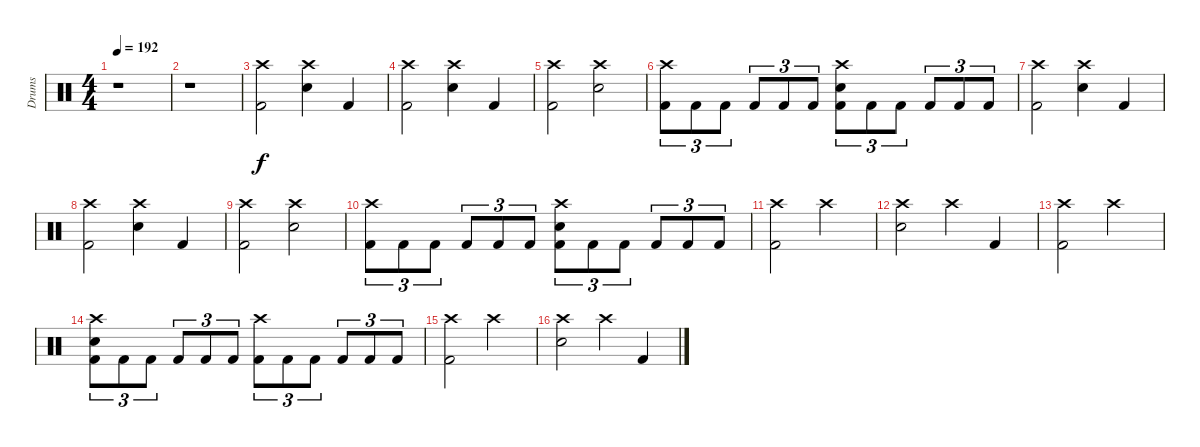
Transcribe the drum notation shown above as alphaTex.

\track ("Drums" "Drums") {instrument percussion}
\staff {score}
\articulation defaults
\ts (4 4)
\tempo 192
\clef neutral
\ks c
r.1{dy f} |
r.1 |
("Crash high (hit)" "Kick (hit) 2").2 ("Crash high (hit)" "Electric Snare (hit)").4 "Kick (hit) 2".4 |
("Crash high (hit)" "Kick (hit) 2").2 ("Crash high (hit)" "Electric Snare (hit)").4 "Kick (hit) 2".4 |
("Crash high (hit)" "Kick (hit) 2").2 ("Crash high (hit)" "Electric Snare (hit)").2 |
("Crash high (hit)" "Kick (hit) 2").8{tu (3 2)} "Kick (hit) 2".8{tu (3 2)} "Kick (hit) 2".8{tu (3 2)} "Kick (hit) 2".8{tu (3 2)} "Kick (hit) 2".8{tu (3 2)} "Kick (hit) 2".8{tu (3 2)} ("Crash high (hit)" "Electric Snare (hit)" "Kick (hit) 2").8{tu (3 2)} "Kick (hit) 2".8{tu (3 2)} "Kick (hit) 2".8{tu (3 2)} "Kick (hit) 2".8{tu (3 2)} "Kick (hit) 2".8{tu (3 2)} "Kick (hit) 2".8{tu (3 2)} |
("Crash high (hit)" "Kick (hit) 2").2 ("Crash high (hit)" "Electric Snare (hit)").4 "Kick (hit) 2".4 |
("Crash high (hit)" "Kick (hit) 2").2 ("Crash high (hit)" "Electric Snare (hit)").4 "Kick (hit) 2".4 |
("Crash high (hit)" "Kick (hit) 2").2 ("Crash high (hit)" "Electric Snare (hit)").2 |
("Crash high (hit)" "Kick (hit) 2").8{tu (3 2)} "Kick (hit) 2".8{tu (3 2)} "Kick (hit) 2".8{tu (3 2)} "Kick (hit) 2".8{tu (3 2)} "Kick (hit) 2".8{tu (3 2)} "Kick (hit) 2".8{tu (3 2)} ("Crash high (hit)" "Electric Snare (hit)" "Kick (hit) 2").8{tu (3 2)} "Kick (hit) 2".8{tu (3 2)} "Kick (hit) 2".8{tu (3 2)} "Kick (hit) 2".8{tu (3 2)} "Kick (hit) 2".8{tu (3 2)} "Kick (hit) 2".8{tu (3 2)} |
("Crash high (hit)" "Kick (hit) 2").2 "Crash high (hit)".2 |
("Crash high (hit)" "Electric Snare (hit)").2 "Crash high (hit)".4 "Kick (hit) 2".4 |
("Crash high (hit)" "Kick (hit) 2").2 "Crash high (hit)".2 |
("Crash high (hit)" "Electric Snare (hit)" "Kick (hit) 2").8{tu (3 2)} "Kick (hit) 2".8{tu (3 2)} "Kick (hit) 2".8{tu (3 2)} "Kick (hit) 2".8{tu (3 2)} "Kick (hit) 2".8{tu (3 2)} "Kick (hit) 2".8{tu (3 2)} ("Crash high (hit)" "Kick (hit) 2").8{tu (3 2)} "Kick (hit) 2".8{tu (3 2)} "Kick (hit) 2".8{tu (3 2)} "Kick (hit) 2".8{tu (3 2)} "Kick (hit) 2".8{tu (3 2)} "Kick (hit) 2".8{tu (3 2)} |
("Crash high (hit)" "Kick (hit) 2").2 "Crash high (hit)".2 |
("Crash high (hit)" "Electric Snare (hit)").2 "Crash high (hit)".4 "Kick (hit) 2".4
